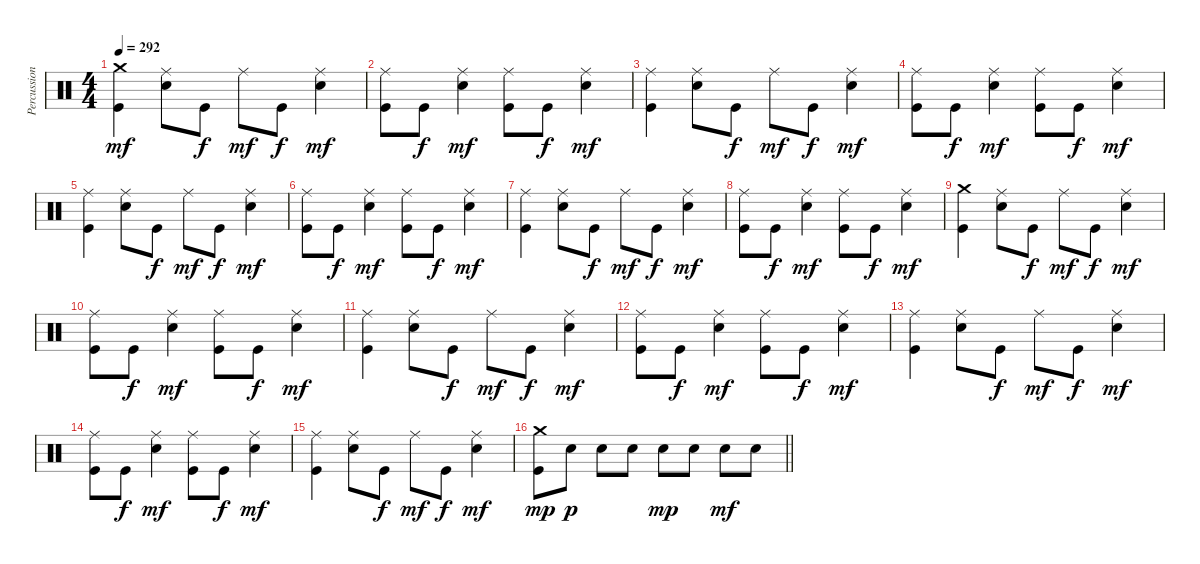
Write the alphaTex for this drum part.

\track ("Percussion" "Percussion") {instrument percussion}
\staff {score}
\articulation defaults
\ts (4 4)
\section ("" "")
\tempo 292
\clef neutral
\ks c
("Crash medium (hit)" "Kick (hit)").4{dy mf} ("Ride (middle)" "Electric Snare (hit)").8 "Kick (hit)".8{dy f} "Ride (middle)".8{dy mf} "Kick (hit)".8{dy f} ("Ride (middle)" "Electric Snare (hit)").4{dy mf} |
("Ride (middle)" "Kick (hit)").8 "Kick (hit)".8{dy f} ("Ride (middle)" "Electric Snare (hit)").4{dy mf} ("Ride (middle)" "Kick (hit)").8 "Kick (hit)".8{dy f} ("Ride (middle)" "Electric Snare (hit)").4{dy mf} |
("Ride (middle)" "Kick (hit)").4 ("Ride (middle)" "Electric Snare (hit)").8 "Kick (hit)".8{dy f} "Ride (middle)".8{dy mf} "Kick (hit)".8{dy f} ("Ride (middle)" "Electric Snare (hit)").4{dy mf} |
("Ride (middle)" "Kick (hit)").8 "Kick (hit)".8{dy f} ("Ride (middle)" "Electric Snare (hit)").4{dy mf} ("Ride (middle)" "Kick (hit)").8 "Kick (hit)".8{dy f} ("Ride (middle)" "Electric Snare (hit)").4{dy mf} |
("Ride (middle)" "Kick (hit)").4 ("Ride (middle)" "Electric Snare (hit)").8 "Kick (hit)".8{dy f} "Ride (middle)".8{dy mf} "Kick (hit)".8{dy f} ("Ride (middle)" "Electric Snare (hit)").4{dy mf} |
("Ride (middle)" "Kick (hit)").8 "Kick (hit)".8{dy f} ("Ride (middle)" "Electric Snare (hit)").4{dy mf} ("Ride (middle)" "Kick (hit)").8 "Kick (hit)".8{dy f} ("Ride (middle)" "Electric Snare (hit)").4{dy mf} |
("Ride (middle)" "Kick (hit)").4 ("Ride (middle)" "Electric Snare (hit)").8 "Kick (hit)".8{dy f} "Ride (middle)".8{dy mf} "Kick (hit)".8{dy f} ("Ride (middle)" "Electric Snare (hit)").4{dy mf} |
("Ride (middle)" "Kick (hit)").8 "Kick (hit)".8{dy f} ("Ride (middle)" "Electric Snare (hit)").4{dy mf} ("Ride (middle)" "Kick (hit)").8 "Kick (hit)".8{dy f} ("Ride (middle)" "Electric Snare (hit)").4{dy mf} |
("Crash medium (hit)" "Kick (hit)").4 ("Ride (middle)" "Electric Snare (hit)").8 "Kick (hit)".8{dy f} "Ride (middle)".8{dy mf} "Kick (hit)".8{dy f} ("Ride (middle)" "Electric Snare (hit)").4{dy mf} |
("Ride (middle)" "Kick (hit)").8 "Kick (hit)".8{dy f} ("Ride (middle)" "Electric Snare (hit)").4{dy mf} ("Ride (middle)" "Kick (hit)").8 "Kick (hit)".8{dy f} ("Ride (middle)" "Electric Snare (hit)").4{dy mf} |
("Ride (middle)" "Kick (hit)").4 ("Ride (middle)" "Electric Snare (hit)").8 "Kick (hit)".8{dy f} "Ride (middle)".8{dy mf} "Kick (hit)".8{dy f} ("Ride (middle)" "Electric Snare (hit)").4{dy mf} |
("Ride (middle)" "Kick (hit)").8 "Kick (hit)".8{dy f} ("Ride (middle)" "Electric Snare (hit)").4{dy mf} ("Ride (middle)" "Kick (hit)").8 "Kick (hit)".8{dy f} ("Ride (middle)" "Electric Snare (hit)").4{dy mf} |
("Ride (middle)" "Kick (hit)").4 ("Ride (middle)" "Electric Snare (hit)").8 "Kick (hit)".8{dy f} "Ride (middle)".8{dy mf} "Kick (hit)".8{dy f} ("Ride (middle)" "Electric Snare (hit)").4{dy mf} |
("Ride (middle)" "Kick (hit)").8 "Kick (hit)".8{dy f} ("Ride (middle)" "Electric Snare (hit)").4{dy mf} ("Ride (middle)" "Kick (hit)").8 "Kick (hit)".8{dy f} ("Ride (middle)" "Electric Snare (hit)").4{dy mf} |
("Ride (middle)" "Kick (hit)").4 ("Ride (middle)" "Electric Snare (hit)").8 "Kick (hit)".8{dy f} "Ride (middle)".8{dy mf} "Kick (hit)".8{dy f} ("Ride (middle)" "Electric Snare (hit)").4{dy mf} |
\barLineRight lightlight
("Crash medium (hit)" "Kick (hit)").8{dy mp} "Electric Snare (hit)".8{dy p} "Electric Snare (hit)".8 "Electric Snare (hit)".8 "Electric Snare (hit)".8{dy mp} "Electric Snare (hit)".8 "Electric Snare (hit)".8{dy mf} "Electric Snare (hit)".8
